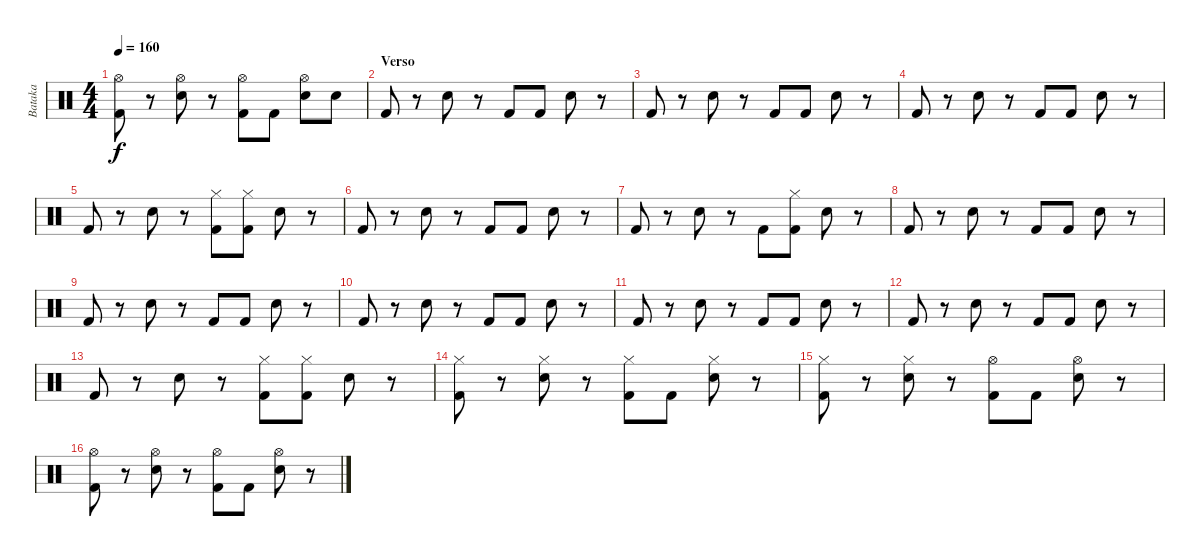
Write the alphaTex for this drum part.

\track ("Bataka" "Bataka") {instrument percussion}
\staff {score}
\articulation defaults
\ts (4 4)
\tempo 160
\clef neutral
\ks c
("Hi-Hat (open)" "Kick (hit) 2").8{dy f} r.8 ("Hi-Hat (open)" "Snare (hit) 2").8 r.8 ("Hi-Hat (open)" "Kick (hit) 2").8 "Kick (hit) 2".8 ("Hi-Hat (open)" "Snare (hit) 2").8 "Snare (hit) 2".8 |
\section ("" "Verso")
"Kick (hit) 2".8 r.8 "Snare (hit) 2".8 r.8 "Kick (hit) 2".8 "Kick (hit) 2".8 "Snare (hit) 2".8 r.8 |
"Kick (hit) 2".8 r.8 "Snare (hit) 2".8 r.8 "Kick (hit) 2".8 "Kick (hit) 2".8 "Snare (hit) 2".8 r.8 |
"Kick (hit) 2".8 r.8 "Snare (hit) 2".8 r.8 "Kick (hit) 2".8 "Kick (hit) 2".8 "Snare (hit) 2".8 r.8 |
"Kick (hit) 2".8 r.8 "Snare (hit) 2".8 r.8 ("Hi-Hat (closed)" "Kick (hit) 2").8 ("Hi-Hat (closed)" "Kick (hit) 2").8 "Snare (hit) 2".8 r.8 |
"Kick (hit) 2".8 r.8 "Snare (hit) 2".8 r.8 "Kick (hit) 2".8 "Kick (hit) 2".8 "Snare (hit) 2".8 r.8 |
"Kick (hit) 2".8 r.8 "Snare (hit) 2".8 r.8 "Kick (hit) 2".8 ("Hi-Hat (closed)" "Kick (hit) 2").8 "Snare (hit) 2".8 r.8 |
"Kick (hit) 2".8 r.8 "Snare (hit) 2".8 r.8 "Kick (hit) 2".8 "Kick (hit) 2".8 "Snare (hit) 2".8 r.8 |
"Kick (hit) 2".8 r.8 "Snare (hit) 2".8 r.8 "Kick (hit) 2".8 "Kick (hit) 2".8 "Snare (hit) 2".8 r.8 |
"Kick (hit) 2".8 r.8 "Snare (hit) 2".8 r.8 "Kick (hit) 2".8 "Kick (hit) 2".8 "Snare (hit) 2".8 r.8 |
"Kick (hit) 2".8 r.8 "Snare (hit) 2".8 r.8 "Kick (hit) 2".8 "Kick (hit) 2".8 "Snare (hit) 2".8 r.8 |
"Kick (hit) 2".8 r.8 "Snare (hit) 2".8 r.8 "Kick (hit) 2".8 "Kick (hit) 2".8 "Snare (hit) 2".8 r.8 |
"Kick (hit) 2".8 r.8 "Snare (hit) 2".8 r.8 ("Hi-Hat (closed)" "Kick (hit) 2").8 ("Hi-Hat (closed)" "Kick (hit) 2").8 "Snare (hit) 2".8 r.8 |
("Hi-Hat (closed)" "Kick (hit) 2").8 r.8 ("Hi-Hat (closed)" "Snare (hit) 2").8 r.8 ("Hi-Hat (closed)" "Kick (hit) 2").8 "Kick (hit) 2".8 ("Hi-Hat (closed)" "Snare (hit) 2").8 r.8 |
("Hi-Hat (closed)" "Kick (hit) 2").8 r.8 ("Hi-Hat (closed)" "Snare (hit) 2").8 r.8 ("Hi-Hat (open)" "Kick (hit) 2").8 "Kick (hit) 2".8 ("Hi-Hat (open)" "Snare (hit) 2").8 r.8 |
("Hi-Hat (open)" "Kick (hit) 2").8 r.8 ("Hi-Hat (open)" "Snare (hit) 2").8 r.8 ("Hi-Hat (open)" "Kick (hit) 2").8 "Kick (hit) 2".8 ("Hi-Hat (open)" "Snare (hit) 2").8 r.8
